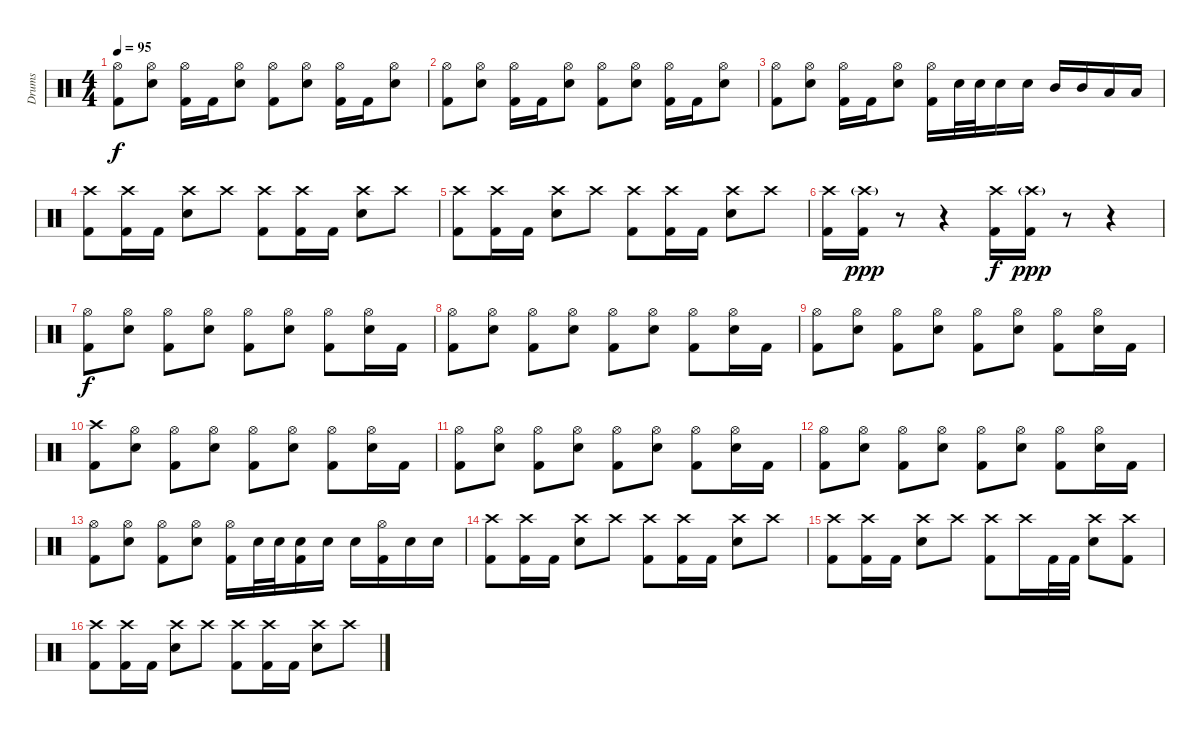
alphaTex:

\track ("Drums" "Drums") {instrument percussion}
\staff {score}
\articulation defaults
\ts (4 4)
\tempo 95
\clef neutral
\ks c
("Hi-Hat (open)" "Kick (hit) 2").8{dy f} ("Hi-Hat (open)" "Snare (hit) 2").8 ("Hi-Hat (open)" "Kick (hit) 2").16 "Kick (hit) 2".16 ("Hi-Hat (open)" "Snare (hit) 2").8 ("Hi-Hat (open)" "Kick (hit) 2").8 ("Hi-Hat (open)" "Snare (hit) 2").8 ("Hi-Hat (open)" "Kick (hit) 2").16 "Kick (hit) 2".16 ("Hi-Hat (open)" "Snare (hit) 2").8 |
("Hi-Hat (open)" "Kick (hit) 2").8 ("Hi-Hat (open)" "Snare (hit) 2").8 ("Hi-Hat (open)" "Kick (hit) 2").16 "Kick (hit) 2".16 ("Hi-Hat (open)" "Snare (hit) 2").8 ("Hi-Hat (open)" "Kick (hit) 2").8 ("Hi-Hat (open)" "Snare (hit) 2").8 ("Hi-Hat (open)" "Kick (hit) 2").16 "Kick (hit) 2".16 ("Hi-Hat (open)" "Snare (hit) 2").8 |
("Hi-Hat (open)" "Kick (hit) 2").8 ("Hi-Hat (open)" "Snare (hit) 2").8 ("Hi-Hat (open)" "Kick (hit) 2").16 "Kick (hit) 2".16 ("Hi-Hat (open)" "Snare (hit) 2").8 ("Hi-Hat (open)" "Kick (hit) 2").16 "Snare (hit) 2".32 "Snare (hit) 2".32 "Snare (hit) 2".16 "Snare (hit) 2".16 "Mid Tom (hit)".16 "Mid Tom (hit)".16 "Low Tom (hit)".16 "Low Tom (hit)".16 |
("Crash high (hit)" "Kick (hit) 2").8 ("Crash high (hit)" "Kick (hit) 2").16 "Kick (hit) 2".16 ("Crash high (hit)" "Snare (hit) 2").8 "Crash high (hit)".8 ("Crash high (hit)" "Kick (hit) 2").8 ("Crash high (hit)" "Kick (hit) 2").16 "Kick (hit) 2".16 ("Crash high (hit)" "Snare (hit) 2").8 "Crash high (hit)".8 |
("Crash high (hit)" "Kick (hit) 2").8 ("Crash high (hit)" "Kick (hit) 2").16 "Kick (hit) 2".16 ("Crash high (hit)" "Snare (hit) 2").8 "Crash high (hit)".8 ("Crash high (hit)" "Kick (hit) 2").8 ("Crash high (hit)" "Kick (hit) 2").16 "Kick (hit) 2".16 ("Crash high (hit)" "Snare (hit) 2").8 "Crash high (hit)".8 |
("Crash high (hit)" "Kick (hit) 2").16 ("Crash high (hit)"{g} "Kick (hit) 2").16{dy ppp} r.8 r.4 ("Crash high (hit)" "Kick (hit) 2").16{dy f} ("Crash high (hit)"{g} "Kick (hit) 2").16{dy ppp} r.8 r.4 |
("Hi-Hat (open)" "Kick (hit) 2").8{dy f} ("Hi-Hat (open)" "Snare (hit) 2").8 ("Hi-Hat (open)" "Kick (hit) 2").8 ("Hi-Hat (open)" "Snare (hit) 2").8 ("Hi-Hat (open)" "Kick (hit) 2").8 ("Hi-Hat (open)" "Snare (hit) 2").8 ("Hi-Hat (open)" "Kick (hit) 2").8 ("Hi-Hat (open)" "Snare (hit) 2").16 "Kick (hit) 2".16 |
("Hi-Hat (open)" "Kick (hit) 2").8 ("Hi-Hat (open)" "Snare (hit) 2").8 ("Hi-Hat (open)" "Kick (hit) 2").8 ("Hi-Hat (open)" "Snare (hit) 2").8 ("Hi-Hat (open)" "Kick (hit) 2").8 ("Hi-Hat (open)" "Snare (hit) 2").8 ("Hi-Hat (open)" "Kick (hit) 2").8 ("Hi-Hat (open)" "Snare (hit) 2").16 "Kick (hit) 2".16 |
("Hi-Hat (open)" "Kick (hit) 2").8 ("Hi-Hat (open)" "Snare (hit) 2").8 ("Hi-Hat (open)" "Kick (hit) 2").8 ("Hi-Hat (open)" "Snare (hit) 2").8 ("Hi-Hat (open)" "Kick (hit) 2").8 ("Hi-Hat (open)" "Snare (hit) 2").8 ("Hi-Hat (open)" "Kick (hit) 2").8 ("Hi-Hat (open)" "Snare (hit) 2").16 "Kick (hit) 2".16 |
("Crash high (hit)" "Kick (hit) 2").8 ("Hi-Hat (open)" "Snare (hit) 2").8 ("Hi-Hat (open)" "Kick (hit) 2").8 ("Hi-Hat (open)" "Snare (hit) 2").8 ("Hi-Hat (open)" "Kick (hit) 2").8 ("Hi-Hat (open)" "Snare (hit) 2").8 ("Hi-Hat (open)" "Kick (hit) 2").8 ("Hi-Hat (open)" "Snare (hit) 2").16 "Kick (hit) 2".16 |
("Hi-Hat (open)" "Kick (hit) 2").8 ("Hi-Hat (open)" "Snare (hit) 2").8 ("Hi-Hat (open)" "Kick (hit) 2").8 ("Hi-Hat (open)" "Snare (hit) 2").8 ("Hi-Hat (open)" "Kick (hit) 2").8 ("Hi-Hat (open)" "Snare (hit) 2").8 ("Hi-Hat (open)" "Kick (hit) 2").8 ("Hi-Hat (open)" "Snare (hit) 2").16 "Kick (hit) 2".16 |
("Hi-Hat (open)" "Kick (hit) 2").8 ("Hi-Hat (open)" "Snare (hit) 2").8 ("Hi-Hat (open)" "Kick (hit) 2").8 ("Hi-Hat (open)" "Snare (hit) 2").8 ("Hi-Hat (open)" "Kick (hit) 2").8 ("Hi-Hat (open)" "Snare (hit) 2").8 ("Hi-Hat (open)" "Kick (hit) 2").8 ("Hi-Hat (open)" "Snare (hit) 2").16 "Kick (hit) 2".16 |
("Hi-Hat (open)" "Kick (hit) 2").8 ("Hi-Hat (open)" "Snare (hit) 2").8 ("Hi-Hat (open)" "Kick (hit) 2").8 ("Hi-Hat (open)" "Snare (hit) 2").8 ("Hi-Hat (open)" "Kick (hit) 2").16 "Snare (hit) 2".32 "Snare (hit) 2".32 ("Snare (hit) 2" "Kick (hit) 2").16 "Snare (hit) 2".16 "Snare (hit) 2".16 ("Hi-Hat (open)" "Kick (hit) 2").16 "Snare (hit) 2".16 "Snare (hit) 2".16 |
("Crash high (hit)" "Kick (hit) 2").8 ("Crash high (hit)" "Kick (hit) 2").16 "Kick (hit) 2".16 ("Crash high (hit)" "Snare (hit) 2").8 "Crash high (hit)".8 ("Crash high (hit)" "Kick (hit) 2").8 ("Crash high (hit)" "Kick (hit) 2").16 "Kick (hit) 2".16 ("Crash high (hit)" "Snare (hit) 2").8 "Crash high (hit)".8 |
("Crash high (hit)" "Kick (hit) 2").8 ("Crash high (hit)" "Kick (hit) 2").16 "Kick (hit) 2".16 ("Crash high (hit)" "Snare (hit) 2").8 "Crash high (hit)".8 ("Crash high (hit)" "Kick (hit) 2").8 "Crash high (hit)".16 "Kick (hit) 2".32 "Kick (hit) 2".32 ("Crash high (hit)" "Snare (hit) 2").8 ("Crash high (hit)" "Kick (hit) 2").8 |
("Crash high (hit)" "Kick (hit) 2").8 ("Crash high (hit)" "Kick (hit) 2").16 "Kick (hit) 2".16 ("Crash high (hit)" "Snare (hit) 2").8 "Crash high (hit)".8 ("Crash high (hit)" "Kick (hit) 2").8 ("Crash high (hit)" "Kick (hit) 2").16 "Kick (hit) 2".16 ("Crash high (hit)" "Snare (hit) 2").8 "Crash high (hit)".8
